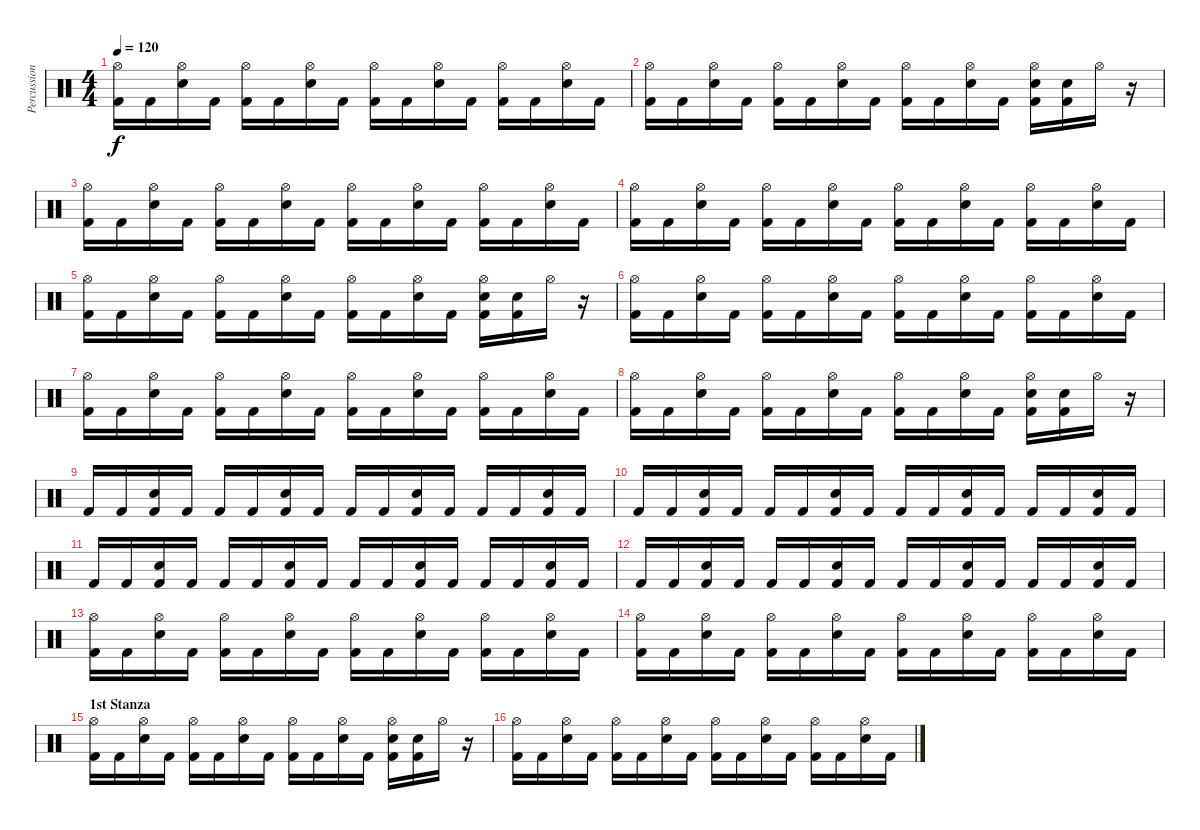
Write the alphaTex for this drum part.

\track ("Percussion" "Percussion") {instrument percussion}
\staff {score}
\articulation defaults
\ts (4 4)
\tempo 120
\clef neutral
\ks c
("Hi-Hat (open)" "Kick (hit) 2").16{dy f} "Kick (hit) 2".16 ("Hi-Hat (open)" "Snare (hit) 2").16 "Kick (hit) 2".16 ("Hi-Hat (open)" "Kick (hit) 2").16 "Kick (hit) 2".16 ("Hi-Hat (open)" "Snare (hit) 2").16 "Kick (hit) 2".16 ("Hi-Hat (open)" "Kick (hit) 2").16 "Kick (hit) 2".16 ("Hi-Hat (open)" "Snare (hit) 2").16 "Kick (hit) 2".16 ("Hi-Hat (open)" "Kick (hit) 2").16 "Kick (hit) 2".16 ("Hi-Hat (open)" "Snare (hit) 2").16 "Kick (hit) 2".16 |
("Hi-Hat (open)" "Kick (hit) 2").16 "Kick (hit) 2".16 ("Hi-Hat (open)" "Snare (hit) 2").16 "Kick (hit) 2".16 ("Hi-Hat (open)" "Kick (hit) 2").16 "Kick (hit) 2".16 ("Hi-Hat (open)" "Snare (hit) 2").16 "Kick (hit) 2".16 ("Hi-Hat (open)" "Kick (hit) 2").16 "Kick (hit) 2".16 ("Hi-Hat (open)" "Snare (hit) 2").16 "Kick (hit) 2".16 ("Hi-Hat (open)" "Snare (hit) 2" "Kick (hit) 2").16 ("Snare (hit) 2" "Kick (hit) 2").16 "Hi-Hat (open)".16 r.16 |
("Hi-Hat (open)" "Kick (hit) 2").16 "Kick (hit) 2".16 ("Hi-Hat (open)" "Snare (hit) 2").16 "Kick (hit) 2".16 ("Hi-Hat (open)" "Kick (hit) 2").16 "Kick (hit) 2".16 ("Hi-Hat (open)" "Snare (hit) 2").16 "Kick (hit) 2".16 ("Hi-Hat (open)" "Kick (hit) 2").16 "Kick (hit) 2".16 ("Hi-Hat (open)" "Snare (hit) 2").16 "Kick (hit) 2".16 ("Hi-Hat (open)" "Kick (hit) 2").16 "Kick (hit) 2".16 ("Hi-Hat (open)" "Snare (hit) 2").16 "Kick (hit) 2".16 |
("Hi-Hat (open)" "Kick (hit) 2").16 "Kick (hit) 2".16 ("Hi-Hat (open)" "Snare (hit) 2").16 "Kick (hit) 2".16 ("Hi-Hat (open)" "Kick (hit) 2").16 "Kick (hit) 2".16 ("Hi-Hat (open)" "Snare (hit) 2").16 "Kick (hit) 2".16 ("Hi-Hat (open)" "Kick (hit) 2").16 "Kick (hit) 2".16 ("Hi-Hat (open)" "Snare (hit) 2").16 "Kick (hit) 2".16 ("Hi-Hat (open)" "Kick (hit) 2").16 "Kick (hit) 2".16 ("Hi-Hat (open)" "Snare (hit) 2").16 "Kick (hit) 2".16 |
("Hi-Hat (open)" "Kick (hit) 2").16 "Kick (hit) 2".16 ("Hi-Hat (open)" "Snare (hit) 2").16 "Kick (hit) 2".16 ("Hi-Hat (open)" "Kick (hit) 2").16 "Kick (hit) 2".16 ("Hi-Hat (open)" "Snare (hit) 2").16 "Kick (hit) 2".16 ("Hi-Hat (open)" "Kick (hit) 2").16 "Kick (hit) 2".16 ("Hi-Hat (open)" "Snare (hit) 2").16 "Kick (hit) 2".16 ("Hi-Hat (open)" "Snare (hit) 2" "Kick (hit) 2").16 ("Snare (hit) 2" "Kick (hit) 2").16 "Hi-Hat (open)".16 r.16 |
("Hi-Hat (open)" "Kick (hit) 2").16 "Kick (hit) 2".16 ("Hi-Hat (open)" "Snare (hit) 2").16 "Kick (hit) 2".16 ("Hi-Hat (open)" "Kick (hit) 2").16 "Kick (hit) 2".16 ("Hi-Hat (open)" "Snare (hit) 2").16 "Kick (hit) 2".16 ("Hi-Hat (open)" "Kick (hit) 2").16 "Kick (hit) 2".16 ("Hi-Hat (open)" "Snare (hit) 2").16 "Kick (hit) 2".16 ("Hi-Hat (open)" "Kick (hit) 2").16 "Kick (hit) 2".16 ("Hi-Hat (open)" "Snare (hit) 2").16 "Kick (hit) 2".16 |
("Hi-Hat (open)" "Kick (hit) 2").16 "Kick (hit) 2".16 ("Hi-Hat (open)" "Snare (hit) 2").16 "Kick (hit) 2".16 ("Hi-Hat (open)" "Kick (hit) 2").16 "Kick (hit) 2".16 ("Hi-Hat (open)" "Snare (hit) 2").16 "Kick (hit) 2".16 ("Hi-Hat (open)" "Kick (hit) 2").16 "Kick (hit) 2".16 ("Hi-Hat (open)" "Snare (hit) 2").16 "Kick (hit) 2".16 ("Hi-Hat (open)" "Kick (hit) 2").16 "Kick (hit) 2".16 ("Hi-Hat (open)" "Snare (hit) 2").16 "Kick (hit) 2".16 |
("Hi-Hat (open)" "Kick (hit) 2").16 "Kick (hit) 2".16 ("Hi-Hat (open)" "Snare (hit) 2").16 "Kick (hit) 2".16 ("Hi-Hat (open)" "Kick (hit) 2").16 "Kick (hit) 2".16 ("Hi-Hat (open)" "Snare (hit) 2").16 "Kick (hit) 2".16 ("Hi-Hat (open)" "Kick (hit) 2").16 "Kick (hit) 2".16 ("Hi-Hat (open)" "Snare (hit) 2").16 "Kick (hit) 2".16 ("Hi-Hat (open)" "Snare (hit) 2" "Kick (hit) 2").16 ("Snare (hit) 2" "Kick (hit) 2").16 "Hi-Hat (open)".16 r.16 |
"Kick (hit) 2".16 "Kick (hit) 2".16 ("Snare (hit) 2" "Kick (hit) 2").16 "Kick (hit) 2".16 "Kick (hit) 2".16 "Kick (hit) 2".16 ("Snare (hit) 2" "Kick (hit) 2").16 "Kick (hit) 2".16 "Kick (hit) 2".16 "Kick (hit) 2".16 ("Snare (hit) 2" "Kick (hit) 2").16 "Kick (hit) 2".16 "Kick (hit) 2".16 "Kick (hit) 2".16 ("Snare (hit) 2" "Kick (hit) 2").16 "Kick (hit) 2".16 |
"Kick (hit) 2".16 "Kick (hit) 2".16 ("Snare (hit) 2" "Kick (hit) 2").16 "Kick (hit) 2".16 "Kick (hit) 2".16 "Kick (hit) 2".16 ("Snare (hit) 2" "Kick (hit) 2").16 "Kick (hit) 2".16 "Kick (hit) 2".16 "Kick (hit) 2".16 ("Snare (hit) 2" "Kick (hit) 2").16 "Kick (hit) 2".16 "Kick (hit) 2".16 "Kick (hit) 2".16 ("Snare (hit) 2" "Kick (hit) 2").16 "Kick (hit) 2".16 |
"Kick (hit) 2".16 "Kick (hit) 2".16 ("Snare (hit) 2" "Kick (hit) 2").16 "Kick (hit) 2".16 "Kick (hit) 2".16 "Kick (hit) 2".16 ("Snare (hit) 2" "Kick (hit) 2").16 "Kick (hit) 2".16 "Kick (hit) 2".16 "Kick (hit) 2".16 ("Snare (hit) 2" "Kick (hit) 2").16 "Kick (hit) 2".16 "Kick (hit) 2".16 "Kick (hit) 2".16 ("Snare (hit) 2" "Kick (hit) 2").16 "Kick (hit) 2".16 |
"Kick (hit) 2".16 "Kick (hit) 2".16 ("Snare (hit) 2" "Kick (hit) 2").16 "Kick (hit) 2".16 "Kick (hit) 2".16 "Kick (hit) 2".16 ("Snare (hit) 2" "Kick (hit) 2").16 "Kick (hit) 2".16 "Kick (hit) 2".16 "Kick (hit) 2".16 ("Snare (hit) 2" "Kick (hit) 2").16 "Kick (hit) 2".16 "Kick (hit) 2".16 "Kick (hit) 2".16 ("Snare (hit) 2" "Kick (hit) 2").16 "Kick (hit) 2".16 |
("Hi-Hat (open)" "Kick (hit) 2").16 "Kick (hit) 2".16 ("Hi-Hat (open)" "Snare (hit) 2").16 "Kick (hit) 2".16 ("Hi-Hat (open)" "Kick (hit) 2").16 "Kick (hit) 2".16 ("Hi-Hat (open)" "Snare (hit) 2").16 "Kick (hit) 2".16 ("Hi-Hat (open)" "Kick (hit) 2").16 "Kick (hit) 2".16 ("Hi-Hat (open)" "Snare (hit) 2").16 "Kick (hit) 2".16 ("Hi-Hat (open)" "Kick (hit) 2").16 "Kick (hit) 2".16 ("Hi-Hat (open)" "Snare (hit) 2").16 "Kick (hit) 2".16 |
("Hi-Hat (open)" "Kick (hit) 2").16 "Kick (hit) 2".16 ("Hi-Hat (open)" "Snare (hit) 2").16 "Kick (hit) 2".16 ("Hi-Hat (open)" "Kick (hit) 2").16 "Kick (hit) 2".16 ("Hi-Hat (open)" "Snare (hit) 2").16 "Kick (hit) 2".16 ("Hi-Hat (open)" "Kick (hit) 2").16 "Kick (hit) 2".16 ("Hi-Hat (open)" "Snare (hit) 2").16 "Kick (hit) 2".16 ("Hi-Hat (open)" "Kick (hit) 2").16 "Kick (hit) 2".16 ("Hi-Hat (open)" "Snare (hit) 2").16 "Kick (hit) 2".16 |
\section ("" "1st Stanza")
("Hi-Hat (open)" "Kick (hit) 2").16 "Kick (hit) 2".16 ("Hi-Hat (open)" "Snare (hit) 2").16 "Kick (hit) 2".16 ("Hi-Hat (open)" "Kick (hit) 2").16 "Kick (hit) 2".16 ("Hi-Hat (open)" "Snare (hit) 2").16 "Kick (hit) 2".16 ("Hi-Hat (open)" "Kick (hit) 2").16 "Kick (hit) 2".16 ("Hi-Hat (open)" "Snare (hit) 2").16 "Kick (hit) 2".16 ("Hi-Hat (open)" "Snare (hit) 2" "Kick (hit) 2").16 ("Snare (hit) 2" "Kick (hit) 2").16 "Hi-Hat (open)".16 r.16 |
("Hi-Hat (open)" "Kick (hit) 2").16 "Kick (hit) 2".16 ("Hi-Hat (open)" "Snare (hit) 2").16 "Kick (hit) 2".16 ("Hi-Hat (open)" "Kick (hit) 2").16 "Kick (hit) 2".16 ("Hi-Hat (open)" "Snare (hit) 2").16 "Kick (hit) 2".16 ("Hi-Hat (open)" "Kick (hit) 2").16 "Kick (hit) 2".16 ("Hi-Hat (open)" "Snare (hit) 2").16 "Kick (hit) 2".16 ("Hi-Hat (open)" "Kick (hit) 2").16 "Kick (hit) 2".16 ("Hi-Hat (open)" "Snare (hit) 2").16 "Kick (hit) 2".16
